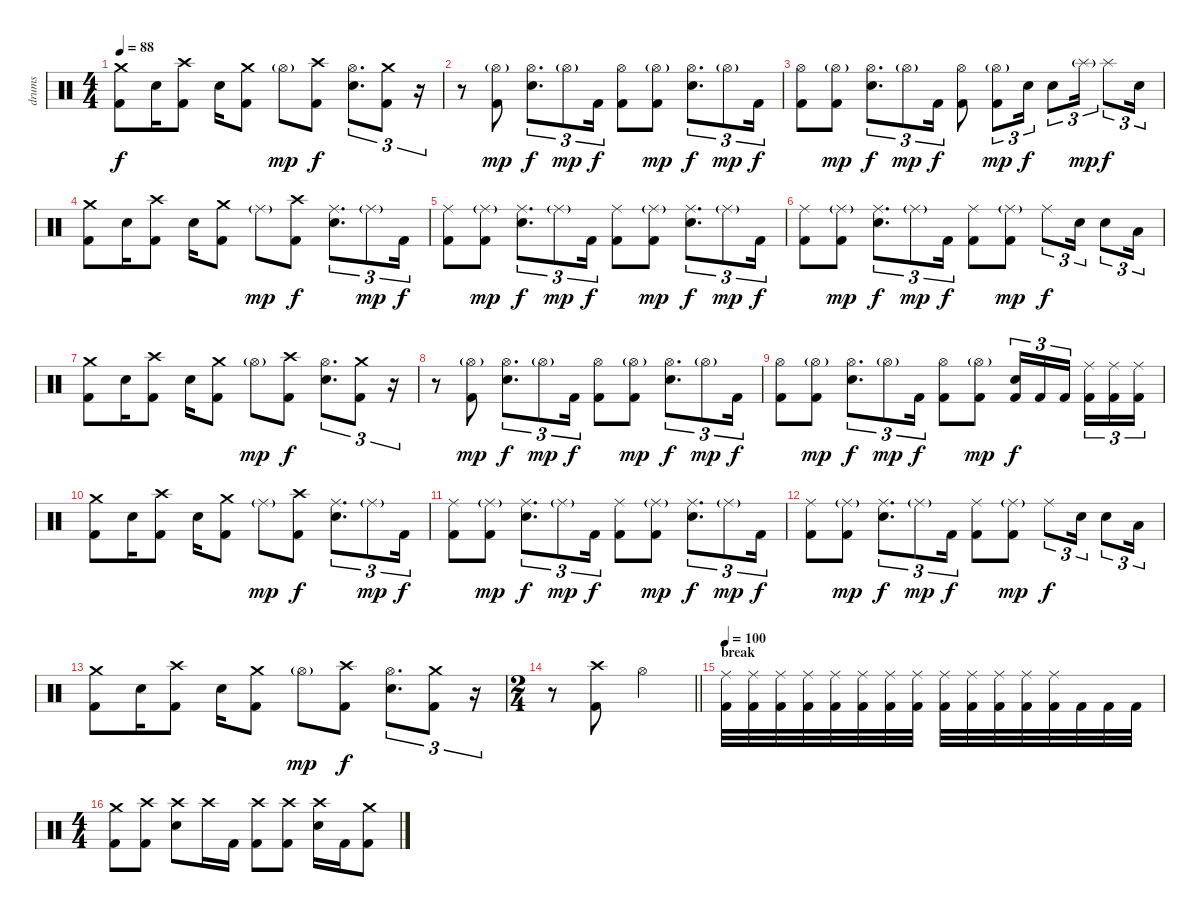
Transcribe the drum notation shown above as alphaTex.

\track ("drums" "drums") {instrument percussion}
\staff {score}
\articulation defaults
\ts (4 4)
\tempo 88
\clef neutral
\ks c
("Crash medium (hit)" "Kick (hit) 2").8{dy f} "Snare (hit) 2".16 ("Crash high (hit)" "Kick (hit) 2").8 "Snare (hit) 2".16 ("Crash medium (hit)" "Kick (hit) 2").8 "Hi-Hat (open)"{g}.8{dy mp} ("Crash high (hit)" "Kick (hit) 2").8{dy f} ("Hi-Hat (open)" "Snare (hit) 2").8{d tu (3 2)} ("Crash medium (hit)" "Kick (hit) 2").8{tu (3 2)} r.16{tu (3 2)} |
r.8 ("Hi-Hat (open)"{g} "Kick (hit) 2").8{dy mp} ("Hi-Hat (open)" "Snare (hit) 2").8{d tu (3 2) dy f} "Hi-Hat (open)"{g}.8{tu (3 2) dy mp} "Kick (hit) 2".16{tu (3 2) dy f} ("Hi-Hat (open)" "Kick (hit) 2").8 ("Hi-Hat (open)"{g} "Kick (hit) 2").8{dy mp} ("Hi-Hat (open)" "Snare (hit) 2").8{d tu (3 2) dy f} "Hi-Hat (open)"{g}.8{tu (3 2) dy mp} "Kick (hit) 2".16{tu (3 2) dy f} |
("Hi-Hat (open)" "Kick (hit) 2").8 ("Hi-Hat (open)"{g} "Kick (hit) 2").8{dy mp} ("Hi-Hat (open)" "Snare (hit) 2").8{d tu (3 2) dy f} "Hi-Hat (open)"{g}.8{tu (3 2) dy mp} "Kick (hit) 2".16{tu (3 2) dy f} ("Hi-Hat (open)" "Kick (hit) 2").8 ("Hi-Hat (open)"{g} "Kick (hit) 2").8{tu (3 2) dy mp} "Snare (hit) 2".16{tu (3 2) dy f} "Snare (hit) 2".8{tu (3 2)} "Splash (hit)"{g}.16{tu (3 2) dy mp} "Splash (hit)".8{tu (3 2) dy f} "Snare (hit) 2".16{tu (3 2)} |
("Crash medium (hit)" "Kick (hit) 2").8 "Snare (hit) 2".16 ("Crash high (hit)" "Kick (hit) 2").8 "Snare (hit) 2".16 ("Crash medium (hit)" "Kick (hit) 2").8 "Ride (middle)"{g}.8{dy mp} ("Crash high (hit)" "Kick (hit) 2").8{dy f} ("Ride (middle)" "Snare (hit) 2").8{d tu (3 2)} "Ride (middle)"{g}.8{tu (3 2) dy mp} "Kick (hit) 2".16{tu (3 2) dy f} |
("Ride (middle)" "Kick (hit) 2").8 ("Ride (middle)"{g} "Kick (hit) 2").8{dy mp} ("Ride (middle)" "Snare (hit) 2").8{d tu (3 2) dy f} "Ride (middle)"{g}.8{tu (3 2) dy mp} "Kick (hit) 2".16{tu (3 2) dy f} ("Ride (middle)" "Kick (hit) 2").8 ("Ride (middle)"{g} "Kick (hit) 2").8{dy mp} ("Ride (middle)" "Snare (hit) 2").8{d tu (3 2) dy f} "Ride (middle)"{g}.8{tu (3 2) dy mp} "Kick (hit) 2".16{tu (3 2) dy f} |
("Ride (middle)" "Kick (hit) 2").8 ("Ride (middle)"{g} "Kick (hit) 2").8{dy mp} ("Ride (middle)" "Snare (hit) 2").8{d tu (3 2) dy f} "Ride (middle)"{g}.8{tu (3 2) dy mp} "Kick (hit) 2".16{tu (3 2) dy f} ("Ride (middle)" "Kick (hit) 2").8 ("Ride (middle)"{g} "Kick (hit) 2").8{dy mp} "Ride (middle)".8{tu (3 2) dy f} "Snare (hit) 2".16{tu (3 2)} "Snare (hit) 2".8{tu (3 2)} "Low Tom (hit)".16{tu (3 2)} |
("Crash medium (hit)" "Kick (hit) 2").8 "Snare (hit) 2".16 ("Crash high (hit)" "Kick (hit) 2").8 "Snare (hit) 2".16 ("Crash medium (hit)" "Kick (hit) 2").8 "Hi-Hat (open)"{g}.8{dy mp} ("Crash high (hit)" "Kick (hit) 2").8{dy f} ("Hi-Hat (open)" "Snare (hit) 2").8{d tu (3 2)} ("Crash medium (hit)" "Kick (hit) 2").8{tu (3 2)} r.16{tu (3 2)} |
r.8 ("Hi-Hat (open)"{g} "Kick (hit) 2").8{dy mp} ("Hi-Hat (open)" "Snare (hit) 2").8{d tu (3 2) dy f} "Hi-Hat (open)"{g}.8{tu (3 2) dy mp} "Kick (hit) 2".16{tu (3 2) dy f} ("Hi-Hat (open)" "Kick (hit) 2").8 ("Hi-Hat (open)"{g} "Kick (hit) 2").8{dy mp} ("Hi-Hat (open)" "Snare (hit) 2").8{d tu (3 2) dy f} "Hi-Hat (open)"{g}.8{tu (3 2) dy mp} "Kick (hit) 2".16{tu (3 2) dy f} |
("Hi-Hat (open)" "Kick (hit) 2").8 ("Hi-Hat (open)"{g} "Kick (hit) 2").8{dy mp} ("Hi-Hat (open)" "Snare (hit) 2").8{d tu (3 2) dy f} "Hi-Hat (open)"{g}.8{tu (3 2) dy mp} "Kick (hit) 2".16{tu (3 2) dy f} ("Hi-Hat (open)" "Kick (hit) 2").8 ("Hi-Hat (open)"{g} "Kick (hit) 2").8{dy mp} ("Snare (hit) 2" "Kick (hit) 2").16{tu (3 2) dy f} "Kick (hit) 2".16{tu (3 2)} "Kick (hit) 2".16{tu (3 2) beam splitsecondary} ("Ride (middle)" "Kick (hit) 2").16{tu (3 2)} ("Ride (middle)" "Kick (hit) 2").16{tu (3 2)} ("Ride (middle)" "Kick (hit) 2").16{tu (3 2)} |
("Crash medium (hit)" "Kick (hit) 2").8 "Snare (hit) 2".16 ("Crash high (hit)" "Kick (hit) 2").8 "Snare (hit) 2".16 ("Crash medium (hit)" "Kick (hit) 2").8 "Ride (middle)"{g}.8{dy mp} ("Crash high (hit)" "Kick (hit) 2").8{dy f} ("Ride (middle)" "Snare (hit) 2").8{d tu (3 2)} "Ride (middle)"{g}.8{tu (3 2) dy mp} "Kick (hit) 2".16{tu (3 2) dy f} |
("Ride (middle)" "Kick (hit) 2").8 ("Ride (middle)"{g} "Kick (hit) 2").8{dy mp} ("Ride (middle)" "Snare (hit) 2").8{d tu (3 2) dy f} "Ride (middle)"{g}.8{tu (3 2) dy mp} "Kick (hit) 2".16{tu (3 2) dy f} ("Ride (middle)" "Kick (hit) 2").8 ("Ride (middle)"{g} "Kick (hit) 2").8{dy mp} ("Ride (middle)" "Snare (hit) 2").8{d tu (3 2) dy f} "Ride (middle)"{g}.8{tu (3 2) dy mp} "Kick (hit) 2".16{tu (3 2) dy f} |
("Ride (middle)" "Kick (hit) 2").8 ("Ride (middle)"{g} "Kick (hit) 2").8{dy mp} ("Ride (middle)" "Snare (hit) 2").8{d tu (3 2) dy f} "Ride (middle)"{g}.8{tu (3 2) dy mp} "Kick (hit) 2".16{tu (3 2) dy f} ("Ride (middle)" "Kick (hit) 2").8 ("Ride (middle)"{g} "Kick (hit) 2").8{dy mp} "Ride (middle)".8{tu (3 2) dy f} "Snare (hit) 2".16{tu (3 2)} "Snare (hit) 2".8{tu (3 2)} "Low Tom (hit)".16{tu (3 2)} |
("Crash medium (hit)" "Kick (hit) 2").8 "Snare (hit) 2".16 ("Crash high (hit)" "Kick (hit) 2").8 "Snare (hit) 2".16 ("Crash medium (hit)" "Kick (hit) 2").8 "Hi-Hat (open)"{g}.8{dy mp} ("Crash high (hit)" "Kick (hit) 2").8{dy f} ("Hi-Hat (open)" "Snare (hit) 2").8{d tu (3 2)} ("Crash medium (hit)" "Kick (hit) 2").8{tu (3 2)} r.16{tu (3 2)} |
\ts (2 4)
\barLineRight lightlight
r.8 ("Crash high (hit)" "Kick (hit) 2").8 "Hi-Hat (open)".4 |
\section ("" "break")
\tempo 100
("Ride (middle)" "Kick (hit) 2").32 ("Ride (middle)" "Kick (hit) 2").32 ("Ride (middle)" "Kick (hit) 2").32 ("Ride (middle)" "Kick (hit) 2").32 ("Ride (middle)" "Kick (hit) 2").32 ("Ride (middle)" "Kick (hit) 2").32 ("Ride (middle)" "Kick (hit) 2").32 ("Ride (middle)" "Kick (hit) 2").32 ("Ride (middle)" "Kick (hit) 2").32 ("Ride (middle)" "Kick (hit) 2").32 ("Ride (middle)" "Kick (hit) 2").32 ("Ride (middle)" "Kick (hit) 2").32 ("Ride (middle)" "Kick (hit) 2").32 "Kick (hit) 2".32 "Kick (hit) 2".32 "Kick (hit) 2".32 |
\ts (4 4)
("Crash medium (hit)" "Kick (hit) 2").8 ("Crash high (hit)" "Kick (hit) 2").8 ("Crash high (hit)" "Snare (hit) 2").8 "Crash high (hit)".16 "Kick (hit) 2".16 ("Crash high (hit)" "Kick (hit) 2").8 ("Crash high (hit)" "Kick (hit) 2").8 ("Crash high (hit)" "Snare (hit) 2").16 "Kick (hit) 2".16 ("Crash medium (hit)" "Kick (hit) 2").8
